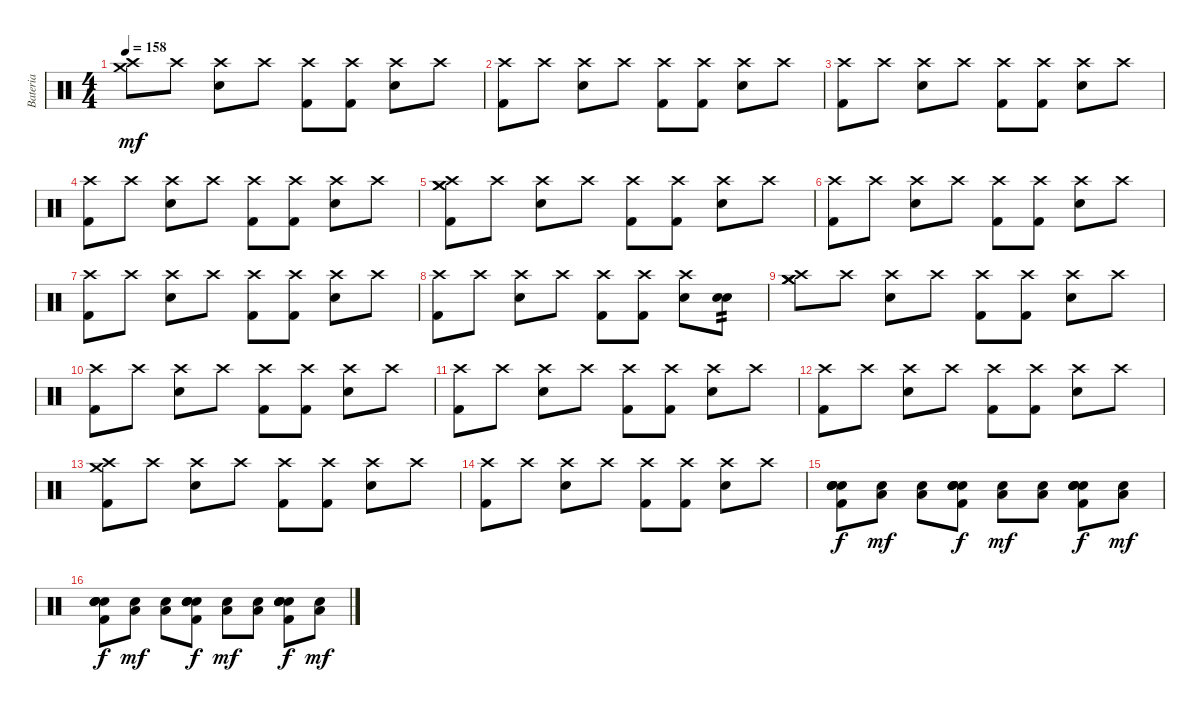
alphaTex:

\track ("Bateria" "Bateria") {instrument percussion}
\staff {score}
\articulation defaults
\ts (4 4)
\tempo 158
\clef neutral
\ks c
("Crash high (hit)" "Crash medium (hit)").8{dy mf} "Crash high (hit)".8 ("Crash high (hit)" "Electric Snare (hit)").8 "Crash high (hit)".8 ("Crash high (hit)" "Kick (hit) 2").8 ("Crash high (hit)" "Kick (hit) 2").8 ("Crash high (hit)" "Electric Snare (hit)").8 "Crash high (hit)".8 |
("Crash high (hit)" "Kick (hit) 2").8 "Crash high (hit)".8 ("Crash high (hit)" "Electric Snare (hit)").8 "Crash high (hit)".8 ("Crash high (hit)" "Kick (hit) 2").8 ("Crash high (hit)" "Kick (hit) 2").8 ("Crash high (hit)" "Electric Snare (hit)").8 "Crash high (hit)".8 |
("Crash high (hit)" "Kick (hit) 2").8 "Crash high (hit)".8 ("Crash high (hit)" "Electric Snare (hit)").8 "Crash high (hit)".8 ("Crash high (hit)" "Kick (hit) 2").8 ("Crash high (hit)" "Kick (hit) 2").8 ("Crash high (hit)" "Electric Snare (hit)").8 "Crash high (hit)".8 |
("Crash high (hit)" "Kick (hit) 2").8 "Crash high (hit)".8 ("Crash high (hit)" "Electric Snare (hit)").8 "Crash high (hit)".8 ("Crash high (hit)" "Kick (hit) 2").8 ("Crash high (hit)" "Kick (hit) 2").8 ("Crash high (hit)" "Electric Snare (hit)").8 "Crash high (hit)".8 |
("Crash high (hit)" "Kick (hit) 2" "Crash medium (hit)" "Crash medium (hit)").8 "Crash high (hit)".8 ("Crash high (hit)" "Electric Snare (hit)").8 "Crash high (hit)".8 ("Crash high (hit)" "Kick (hit) 2").8 ("Crash high (hit)" "Kick (hit) 2").8 ("Crash high (hit)" "Electric Snare (hit)").8 "Crash high (hit)".8 |
("Crash high (hit)" "Kick (hit) 2").8 "Crash high (hit)".8 ("Crash high (hit)" "Electric Snare (hit)").8 "Crash high (hit)".8 ("Crash high (hit)" "Kick (hit) 2").8 ("Crash high (hit)" "Kick (hit) 2").8 ("Crash high (hit)" "Electric Snare (hit)").8 "Crash high (hit)".8 |
("Crash high (hit)" "Kick (hit) 2").8 "Crash high (hit)".8 ("Crash high (hit)" "Electric Snare (hit)").8 "Crash high (hit)".8 ("Crash high (hit)" "Kick (hit) 2").8 ("Crash high (hit)" "Kick (hit) 2").8 ("Crash high (hit)" "Electric Snare (hit)").8 "Crash high (hit)".8 |
("Crash high (hit)" "Kick (hit) 2").8 "Crash high (hit)".8 ("Crash high (hit)" "Electric Snare (hit)").8 "Crash high (hit)".8 ("Crash high (hit)" "Kick (hit) 2").8 ("Crash high (hit)" "Kick (hit) 2").8 ("Crash high (hit)" "Electric Snare (hit)").8 ("Electric Snare (hit)" "Snare (hit) 2").8{tp 2} |
("Crash high (hit)" "Crash medium (hit)" "Crash medium (hit)" "Crash medium (hit)").8 "Crash high (hit)".8 ("Crash high (hit)" "Electric Snare (hit)").8 "Crash high (hit)".8 ("Crash high (hit)" "Kick (hit) 2").8 ("Crash high (hit)" "Kick (hit) 2").8 ("Crash high (hit)" "Electric Snare (hit)").8 "Crash high (hit)".8 |
("Crash high (hit)" "Kick (hit) 2").8 "Crash high (hit)".8 ("Crash high (hit)" "Electric Snare (hit)").8 "Crash high (hit)".8 ("Crash high (hit)" "Kick (hit) 2").8 ("Crash high (hit)" "Kick (hit) 2").8 ("Crash high (hit)" "Electric Snare (hit)").8 "Crash high (hit)".8 |
("Crash high (hit)" "Kick (hit) 2").8 "Crash high (hit)".8 ("Crash high (hit)" "Electric Snare (hit)").8 "Crash high (hit)".8 ("Crash high (hit)" "Kick (hit) 2").8 ("Crash high (hit)" "Kick (hit) 2").8 ("Crash high (hit)" "Electric Snare (hit)").8 "Crash high (hit)".8 |
("Crash high (hit)" "Kick (hit) 2").8 "Crash high (hit)".8 ("Crash high (hit)" "Electric Snare (hit)").8 "Crash high (hit)".8 ("Crash high (hit)" "Kick (hit) 2").8 ("Crash high (hit)" "Kick (hit) 2").8 ("Crash high (hit)" "Electric Snare (hit)").8 "Crash high (hit)".8 |
("Crash high (hit)" "Kick (hit) 2" "Crash medium (hit)").8 "Crash high (hit)".8 ("Crash high (hit)" "Electric Snare (hit)").8 "Crash high (hit)".8 ("Crash high (hit)" "Kick (hit) 2").8 ("Crash high (hit)" "Kick (hit) 2").8 ("Crash high (hit)" "Electric Snare (hit)").8 "Crash high (hit)".8 |
("Crash high (hit)" "Kick (hit) 2").8 "Crash high (hit)".8 ("Crash high (hit)" "Electric Snare (hit)").8 "Crash high (hit)".8 ("Crash high (hit)" "Kick (hit) 2").8 ("Crash high (hit)" "Kick (hit) 2").8 ("Crash high (hit)" "Electric Snare (hit)").8 "Crash high (hit)".8 |
("Electric Snare (hit)" "Snare (hit) 2" "Kick (hit) 2" "Electric Snare (hit)" "Snare (hit) 2").8{dy f} ("Low Tom (hit)" "Snare (hit) 2").8{dy mf} ("Low Tom (hit)" "Snare (hit) 2").8 ("Electric Snare (hit)" "Snare (hit) 2" "Kick (hit) 2" "Electric Snare (hit)" "Snare (hit) 2").8{dy f} ("Low Tom (hit)" "Snare (hit) 2").8{dy mf} ("Low Tom (hit)" "Snare (hit) 2").8 ("Electric Snare (hit)" "Snare (hit) 2" "Kick (hit) 2" "Electric Snare (hit)" "Snare (hit) 2").8{dy f} ("Low Tom (hit)" "Snare (hit) 2").8{dy mf} |
("Electric Snare (hit)" "Snare (hit) 2" "Kick (hit) 2" "Electric Snare (hit)" "Snare (hit) 2").8{dy f} ("Low Tom (hit)" "Snare (hit) 2").8{dy mf} ("Low Tom (hit)" "Snare (hit) 2").8 ("Electric Snare (hit)" "Snare (hit) 2" "Kick (hit) 2" "Electric Snare (hit)" "Snare (hit) 2").8{dy f} ("Low Tom (hit)" "Snare (hit) 2").8{dy mf} ("Low Tom (hit)" "Snare (hit) 2").8 ("Electric Snare (hit)" "Snare (hit) 2" "Kick (hit) 2" "Electric Snare (hit)" "Snare (hit) 2").8{dy f} ("Low Tom (hit)" "Snare (hit) 2").8{dy mf}
